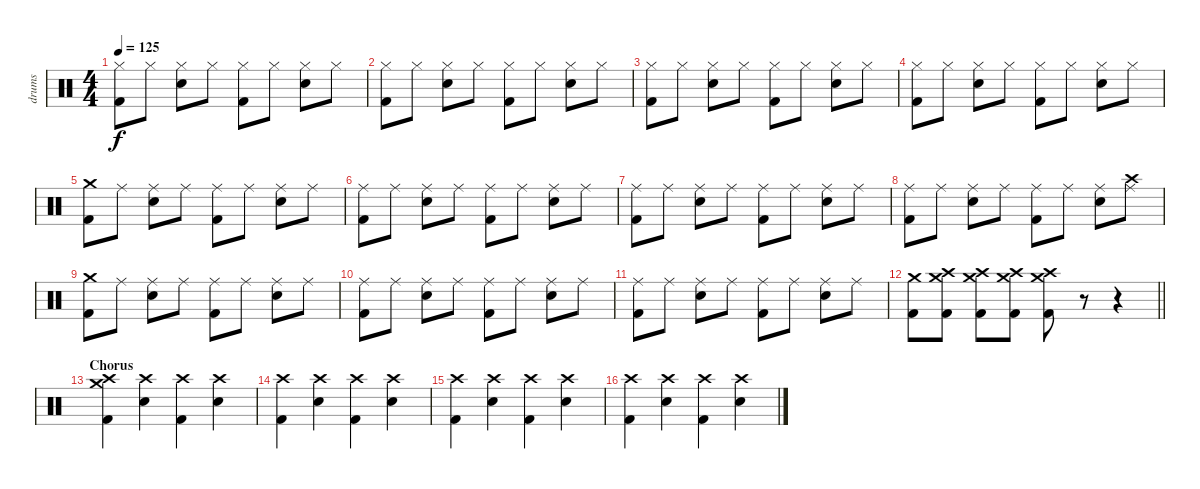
\track ("drums" "drums") {instrument percussion}
\staff {score}
\articulation defaults
\ts (4 4)
\tempo 125
\clef neutral
\ks c
("Hi-Hat (closed)" "Kick (hit) 2").8{dy f} "Hi-Hat (closed)".8 ("Hi-Hat (closed)" "Snare (hit) 2").8 "Hi-Hat (closed)".8 ("Hi-Hat (closed)" "Kick (hit) 2").8 "Hi-Hat (closed)".8 ("Hi-Hat (closed)" "Snare (hit) 2").8 "Hi-Hat (closed)".8 |
("Hi-Hat (closed)" "Kick (hit) 2").8 "Hi-Hat (closed)".8 ("Hi-Hat (closed)" "Snare (hit) 2").8 "Hi-Hat (closed)".8 ("Hi-Hat (closed)" "Kick (hit) 2").8 "Hi-Hat (closed)".8 ("Hi-Hat (closed)" "Snare (hit) 2").8 "Hi-Hat (closed)".8 |
("Hi-Hat (closed)" "Kick (hit) 2").8 "Hi-Hat (closed)".8 ("Hi-Hat (closed)" "Snare (hit) 2").8 "Hi-Hat (closed)".8 ("Hi-Hat (closed)" "Kick (hit) 2").8 "Hi-Hat (closed)".8 ("Hi-Hat (closed)" "Snare (hit) 2").8 "Hi-Hat (closed)".8 |
("Hi-Hat (closed)" "Kick (hit) 2").8 "Hi-Hat (closed)".8 ("Hi-Hat (closed)" "Snare (hit) 2").8 "Hi-Hat (closed)".8 ("Hi-Hat (closed)" "Kick (hit) 2").8 "Hi-Hat (closed)".8 ("Hi-Hat (closed)" "Snare (hit) 2").8 "Hi-Hat (closed)".8 |
("Crash medium (hit)" "Kick (hit) 2").8 "Ride (middle)".8 ("Ride (middle)" "Snare (hit) 2").8 "Ride (middle)".8 ("Ride (middle)" "Kick (hit) 2").8 "Ride (middle)".8 ("Ride (middle)" "Snare (hit) 2").8 "Ride (middle)".8 |
("Ride (middle)" "Kick (hit) 2").8 "Ride (middle)".8 ("Ride (middle)" "Snare (hit) 2").8 "Ride (middle)".8 ("Ride (middle)" "Kick (hit) 2").8 "Ride (middle)".8 ("Ride (middle)" "Snare (hit) 2").8 "Ride (middle)".8 |
("Ride (middle)" "Kick (hit) 2").8 "Ride (middle)".8 ("Ride (middle)" "Snare (hit) 2").8 "Ride (middle)".8 ("Ride (middle)" "Kick (hit) 2").8 "Ride (middle)".8 ("Ride (middle)" "Snare (hit) 2").8 "Ride (middle)".8 |
("Ride (middle)" "Kick (hit) 2").8 "Ride (middle)".8 ("Ride (middle)" "Snare (hit) 2").8 "Ride (middle)".8 ("Ride (middle)" "Kick (hit) 2").8 "Ride (middle)".8 ("Ride (middle)" "Snare (hit) 2").8 ("Crash high (hit)" "Ride (middle)").8 |
("Crash medium (hit)" "Kick (hit) 2").8 "Ride (middle)".8 ("Ride (middle)" "Snare (hit) 2").8 "Ride (middle)".8 ("Ride (middle)" "Kick (hit) 2").8 "Ride (middle)".8 ("Ride (middle)" "Snare (hit) 2").8 "Ride (middle)".8 |
("Ride (middle)" "Kick (hit) 2").8 "Ride (middle)".8 ("Ride (middle)" "Snare (hit) 2").8 "Ride (middle)".8 ("Ride (middle)" "Kick (hit) 2").8 "Ride (middle)".8 ("Ride (middle)" "Snare (hit) 2").8 "Ride (middle)".8 |
("Ride (middle)" "Kick (hit) 2").8 "Ride (middle)".8 ("Ride (middle)" "Snare (hit) 2").8 "Ride (middle)".8 ("Ride (middle)" "Kick (hit) 2").8 "Ride (middle)".8 ("Ride (middle)" "Snare (hit) 2").8 "Ride (middle)".8 |
\barLineRight lightlight
("Crash medium (hit)" "Kick (hit) 2").8 ("Crash medium (hit)" "Crash high (hit)" "Kick (hit) 2").8 ("Crash medium (hit)" "Crash high (hit)" "Kick (hit) 2").8 ("Crash medium (hit)" "Crash high (hit)" "Kick (hit) 2").8 ("Crash medium (hit)" "Crash high (hit)" "Kick (hit) 2").8 r.8 r.4 |
\section ("" "Chorus")
("Crash high (hit)" "Crash medium (hit)" "Kick (hit) 2").4 ("Crash high (hit)" "Snare (hit) 2").4 ("Crash high (hit)" "Kick (hit) 2").4 ("Crash high (hit)" "Snare (hit) 2").4 |
("Crash high (hit)" "Kick (hit) 2").4 ("Crash high (hit)" "Snare (hit) 2").4 ("Crash high (hit)" "Kick (hit) 2").4 ("Crash high (hit)" "Snare (hit) 2").4 |
("Crash high (hit)" "Kick (hit) 2").4 ("Crash high (hit)" "Snare (hit) 2").4 ("Crash high (hit)" "Kick (hit) 2").4 ("Crash high (hit)" "Snare (hit) 2").4 |
("Crash high (hit)" "Kick (hit) 2").4 ("Crash high (hit)" "Snare (hit) 2").4 ("Crash high (hit)" "Kick (hit) 2").4 ("Crash high (hit)" "Snare (hit) 2").4
